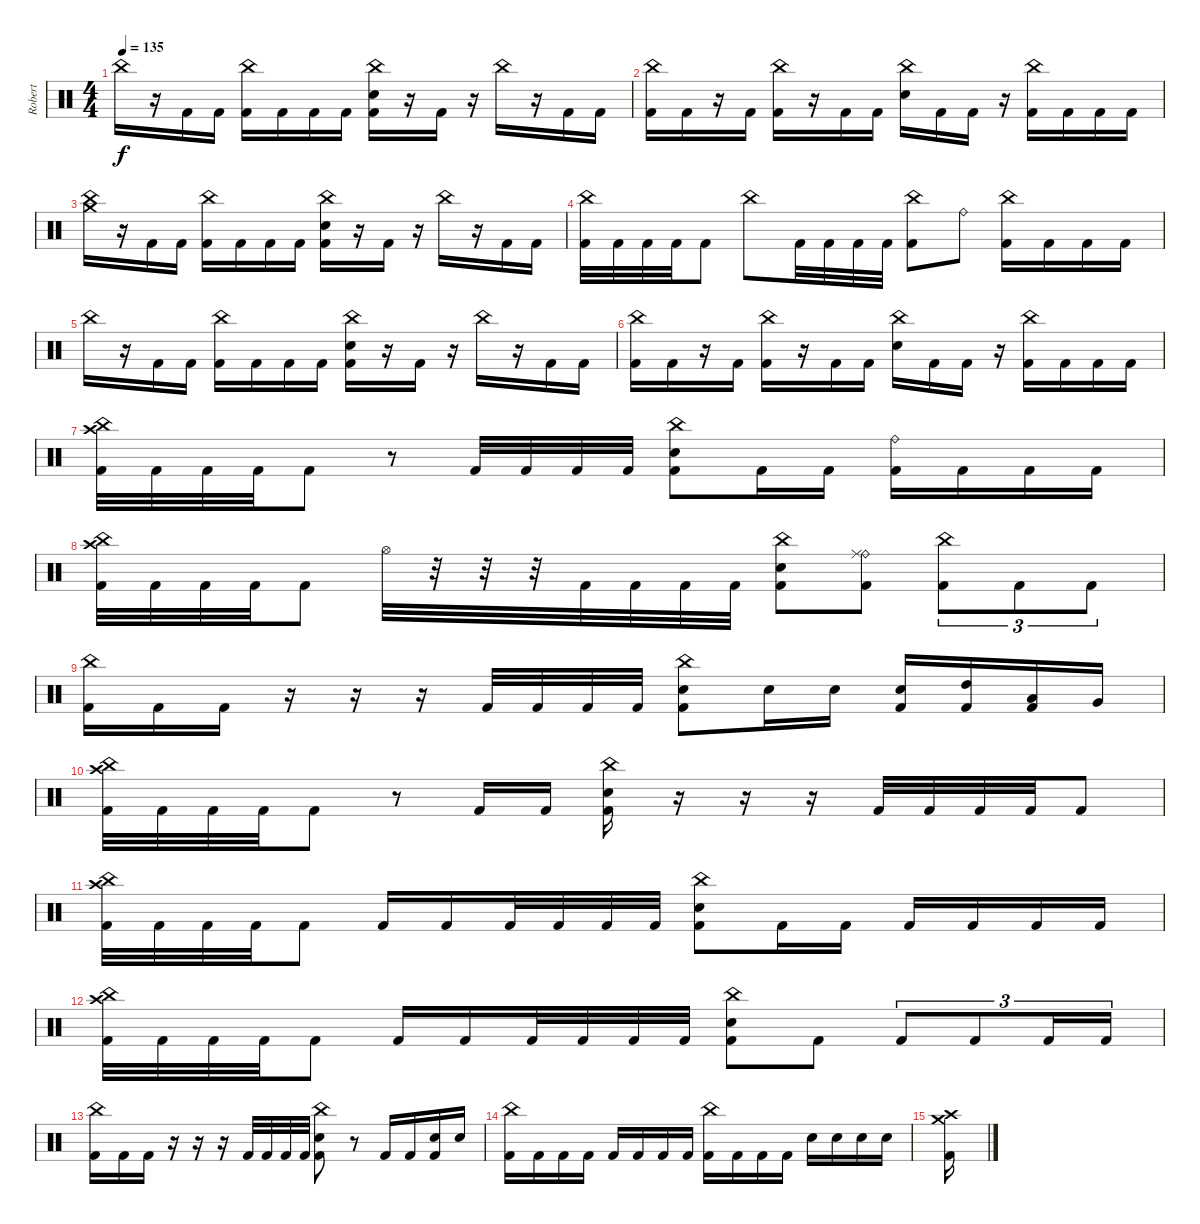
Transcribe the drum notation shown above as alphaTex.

\track ("Robert" "Robert") {instrument percussion}
\staff {score}
\articulation defaults
\ts (4 4)
\tempo 135
\clef neutral
\ks c "China (hit)".16{dy f}
r.16 "Kick (hit) 2".16 "Kick (hit) 2".16 ("China (hit)" "Kick (hit) 2").16 "Kick (hit) 2".16 "Kick (hit) 2".16 "Kick (hit) 2".16 ("China (hit)" "Electric Snare (hit)" "Kick (hit) 2").16 r.16 "Kick (hit) 2".16 r.16 "China (hit)".16 r.16 "Kick (hit) 2".16 "Kick (hit) 2".16 |
("Kick (hit) 2" "China (hit)").16 "Kick (hit) 2".16 r.16 "Kick (hit) 2".16 ("Kick (hit) 2" "China (hit)").16 r.16 "Kick (hit) 2".16 "Kick (hit) 2".16 ("China (hit)" "Electric Snare (hit)").16 "Kick (hit) 2".16 "Kick (hit) 2".16 r.16 ("Kick (hit) 2" "China (hit)").16 "Kick (hit) 2".16 "Kick (hit) 2".16 "Kick (hit) 2".16 |
("Crash medium (hit)" "China (hit)").16 r.16 "Kick (hit) 2".16 "Kick (hit) 2".16 ("China (hit)" "Kick (hit) 2").16 "Kick (hit) 2".16 "Kick (hit) 2".16 "Kick (hit) 2".16 ("China (hit)" "Electric Snare (hit)" "Kick (hit) 2").16 r.16 "Kick (hit) 2".16 r.16 "China (hit)".16 r.16 "Kick (hit) 2".16 "Kick (hit) 2".16 |
("China (hit)" "Kick (hit) 2").32 "Kick (hit) 2".32 "Kick (hit) 2".32 "Kick (hit) 2".32 "Kick (hit) 2".8 "China (hit)".8 "Kick (hit) 2".32 "Kick (hit) 2".32 "Kick (hit) 2".32 "Kick (hit) 2".32 ("China (hit)" "Kick (hit) 2").8 "Ride (bell)"{nh}.8 ("China (hit)" "Kick (hit) 2").16 "Kick (hit) 2".16 "Kick (hit) 2".16 "Kick (hit) 2".16 |
"China (hit)".16 r.16 "Kick (hit) 2".16 "Kick (hit) 2".16 ("China (hit)" "Kick (hit) 2").16 "Kick (hit) 2".16 "Kick (hit) 2".16 "Kick (hit) 2".16 ("China (hit)" "Electric Snare (hit)" "Kick (hit) 2").16 r.16 "Kick (hit) 2".16 r.16 "China (hit)".16 r.16 "Kick (hit) 2".16 "Kick (hit) 2".16 |
("Kick (hit) 2" "China (hit)").16 "Kick (hit) 2".16 r.16 "Kick (hit) 2".16 ("Kick (hit) 2" "China (hit)").16 r.16 "Kick (hit) 2".16 "Kick (hit) 2".16 ("China (hit)" "Electric Snare (hit)").16 "Kick (hit) 2".16 "Kick (hit) 2".16 r.16 ("Kick (hit) 2" "China (hit)").16 "Kick (hit) 2".16 "Kick (hit) 2".16 "Kick (hit) 2".16 |
("Crash high (hit)" "China (hit)" "Kick (hit) 2").32 "Kick (hit) 2".32 "Kick (hit) 2".32 "Kick (hit) 2".32 "Kick (hit) 2".8 r.8 "Kick (hit) 2".32 "Kick (hit) 2".32 "Kick (hit) 2".32 "Kick (hit) 2".32 ("China (hit)" "Electric Snare (hit)" "Kick (hit) 2").8 "Kick (hit) 2".16 "Kick (hit) 2".16 ("Ride (bell)" "Kick (hit) 2").16 "Kick (hit) 2".16 "Kick (hit) 2".16 "Kick (hit) 2".16 |
("Crash high (hit)" "China (hit)" "Kick (hit) 2").32 "Kick (hit) 2".32 "Kick (hit) 2".32 "Kick (hit) 2".32 "Kick (hit) 2".8 "Hi-Hat (open)".32 r.32 r.32 r.32 "Kick (hit) 2".32 "Kick (hit) 2".32 "Kick (hit) 2".32 "Kick (hit) 2".32 ("Electric Snare (hit)" "China (hit)" "Kick (hit) 2").8 ("Ride (bell)" "Kick (hit) 2" "Ride (middle)").8 ("Kick (hit) 2" "China (hit)").8{tu (3 2)} "Kick (hit) 2".8{tu (3 2)} "Kick (hit) 2".8{tu (3 2)} |
("China (hit)" "Kick (hit) 2").16 "Kick (hit) 2".16 "Kick (hit) 2".16 r.16 r.16 r.16 "Kick (hit) 2".32 "Kick (hit) 2".32 "Kick (hit) 2".32 "Kick (hit) 2".32 ("China (hit)" "Electric Snare (hit)" "Kick (hit) 2").8 "Electric Snare (hit)".16 "Electric Snare (hit)".16 ("Electric Snare (hit)" "Kick (hit) 2").16 ("High Tom (hit)" "Kick (hit) 2").16 ("Low Tom (hit)" "Kick (hit) 2").16 "Very Low Tom (hit)".16 |
("China (hit)" "Crash high (hit)" "Kick (hit) 2").32 "Kick (hit) 2".32 "Kick (hit) 2".32 "Kick (hit) 2".32 "Kick (hit) 2".8 r.8 "Kick (hit) 2".16 "Kick (hit) 2".16 ("China (hit)" "Electric Snare (hit)" "Kick (hit) 2").16 r.16 r.16 r.16 "Kick (hit) 2".32 "Kick (hit) 2".32 "Kick (hit) 2".32 "Kick (hit) 2".32 "Kick (hit) 2".8 |
("Crash high (hit)" "China (hit)" "Kick (hit) 2").32 "Kick (hit) 2".32 "Kick (hit) 2".32 "Kick (hit) 2".32 "Kick (hit) 2".8 "Kick (hit) 2".16 "Kick (hit) 2".16 "Kick (hit) 2".32 "Kick (hit) 2".32 "Kick (hit) 2".32 "Kick (hit) 2".32 ("China (hit)" "Electric Snare (hit)" "Kick (hit) 2").8 "Kick (hit) 2".16 "Kick (hit) 2".16 "Kick (hit) 2".16 "Kick (hit) 2".16 "Kick (hit) 2".16 "Kick (hit) 2".16 |
("Crash high (hit)" "China (hit)" "Kick (hit) 2").32 "Kick (hit) 2".32 "Kick (hit) 2".32 "Kick (hit) 2".32 "Kick (hit) 2".8 "Kick (hit) 2".16 "Kick (hit) 2".16 "Kick (hit) 2".32 "Kick (hit) 2".32 "Kick (hit) 2".32 "Kick (hit) 2".32 ("Electric Snare (hit)" "China (hit)" "Kick (hit) 2").8 "Kick (hit) 2".8 "Kick (hit) 2".8{tu (3 2)} "Kick (hit) 2".8{tu (3 2)} "Kick (hit) 2".16{tu (3 2)} "Kick (hit) 2".16{tu (3 2)} |
("China (hit)" "Kick (hit) 2").16 "Kick (hit) 2".16 "Kick (hit) 2".16 r.16 r.16 r.16 "Kick (hit) 2".32 "Kick (hit) 2".32 "Kick (hit) 2".32 "Kick (hit) 2".32 ("China (hit)" "Electric Snare (hit)" "Kick (hit) 2").8 r.8 "Kick (hit) 2".16 "Kick (hit) 2".16 ("Electric Snare (hit)" "Kick (hit) 2").16 "Electric Snare (hit)".16 |
("China (hit)" "Kick (hit) 2").16 "Kick (hit) 2".16 "Kick (hit) 2".16 "Kick (hit) 2".16 "Kick (hit) 2".16 "Kick (hit) 2".16 "Kick (hit) 2".16 "Kick (hit) 2".16 ("China (hit)" "Kick (hit) 2").16 "Kick (hit) 2".16 "Kick (hit) 2".16 "Kick (hit) 2".16 "Electric Snare (hit)".16 "Electric Snare (hit)".16 "Electric Snare (hit)".16 "Electric Snare (hit)".16 |
("Kick (hit) 2" "Crash medium (hit)" "Crash high (hit)").16
